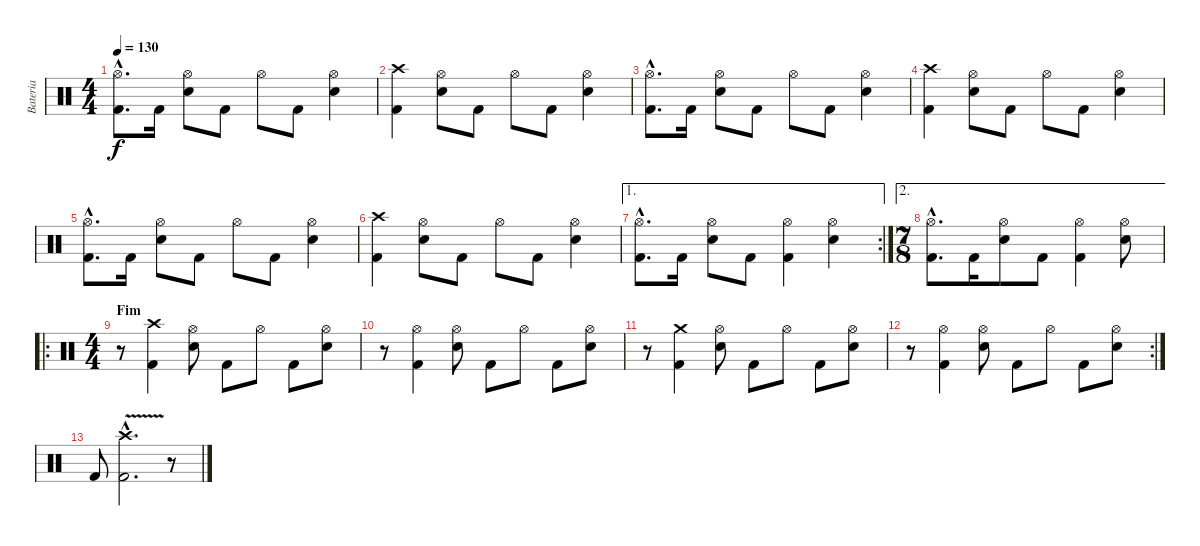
\track ("Bateria" "Bateria") {instrument percussion}
\staff {score}
\articulation defaults
\ts (4 4)
\tempo 130
\clef neutral
\ks c
("Hi-Hat (open)"{hac} "Kick (hit) 2"{hac}).8{d dy f} "Kick (hit) 2".16 ("Hi-Hat (open)" "Electric Snare (hit)").8 "Kick (hit) 2".8 "Hi-Hat (open)".8 "Kick (hit) 2".8 ("Hi-Hat (open)" "Electric Snare (hit)").4 |
("Crash high (hit)" "Kick (hit) 2").4 ("Hi-Hat (open)" "Electric Snare (hit)").8 "Kick (hit) 2".8 "Hi-Hat (open)".8 "Kick (hit) 2".8 ("Hi-Hat (open)" "Electric Snare (hit)").4 |
("Hi-Hat (open)"{hac} "Kick (hit) 2"{hac}).8{d} "Kick (hit) 2".16 ("Hi-Hat (open)" "Electric Snare (hit)").8 "Kick (hit) 2".8 "Hi-Hat (open)".8 "Kick (hit) 2".8 ("Hi-Hat (open)" "Electric Snare (hit)").4 |
("Crash high (hit)" "Kick (hit) 2").4 ("Hi-Hat (open)" "Electric Snare (hit)").8 "Kick (hit) 2".8 "Hi-Hat (open)".8 "Kick (hit) 2".8 ("Hi-Hat (open)" "Electric Snare (hit)").4 |
("Hi-Hat (open)"{hac} "Kick (hit) 2"{hac}).8{d} "Kick (hit) 2".16 ("Hi-Hat (open)" "Electric Snare (hit)").8 "Kick (hit) 2".8 "Hi-Hat (open)".8 "Kick (hit) 2".8 ("Hi-Hat (open)" "Electric Snare (hit)").4 |
("Crash high (hit)" "Kick (hit) 2").4 ("Hi-Hat (open)" "Electric Snare (hit)").8 "Kick (hit) 2".8 "Hi-Hat (open)".8 "Kick (hit) 2".8 ("Hi-Hat (open)" "Electric Snare (hit)").4 |
\ae 1
\rc 2
("Hi-Hat (open)"{hac} "Kick (hit) 2"{hac}).8{d} "Kick (hit) 2".16 ("Hi-Hat (open)" "Electric Snare (hit)").8 "Kick (hit) 2".8 ("Hi-Hat (open)" "Kick (hit) 2").4 ("Hi-Hat (open)" "Electric Snare (hit)").4 |
\ae 2
\ts (7 8)
("Hi-Hat (open)"{hac} "Kick (hit) 2"{hac}).8{d} "Kick (hit) 2".16 ("Hi-Hat (open)" "Electric Snare (hit)").8 "Kick (hit) 2".8 ("Hi-Hat (open)" "Kick (hit) 2").4 ("Hi-Hat (open)" "Electric Snare (hit)").8 |
\ro
\ts (4 4)
\section ("" "Fim")
r.8 ("Crash high (hit)" "Kick (hit) 2").4 ("Hi-Hat (open)" "Electric Snare (hit)").8 "Kick (hit) 2".8 "Hi-Hat (open)".8 "Kick (hit) 2".8 ("Hi-Hat (open)" "Electric Snare (hit)").8 |
r.8 ("Hi-Hat (open)" "Kick (hit) 2").4 ("Hi-Hat (open)" "Electric Snare (hit)").8 "Kick (hit) 2".8 "Hi-Hat (open)".8 "Kick (hit) 2".8 ("Hi-Hat (open)" "Electric Snare (hit)").8 |
r.8 ("Crash medium (hit)" "Kick (hit) 2").4 ("Hi-Hat (open)" "Electric Snare (hit)").8 "Kick (hit) 2".8 "Hi-Hat (open)".8 "Kick (hit) 2".8 ("Hi-Hat (open)" "Electric Snare (hit)").8 |
\rc 2
r.8 ("Hi-Hat (open)" "Kick (hit) 2").4 ("Hi-Hat (open)" "Electric Snare (hit)").8 "Kick (hit) 2".8 "Hi-Hat (open)".8 "Kick (hit) 2".8 ("Hi-Hat (open)" "Electric Snare (hit)").8 |
"Kick (hit) 2".8 ("Crash high (hit)"{v hac} "Kick (hit) 2"{hac}).2{d} r.8
